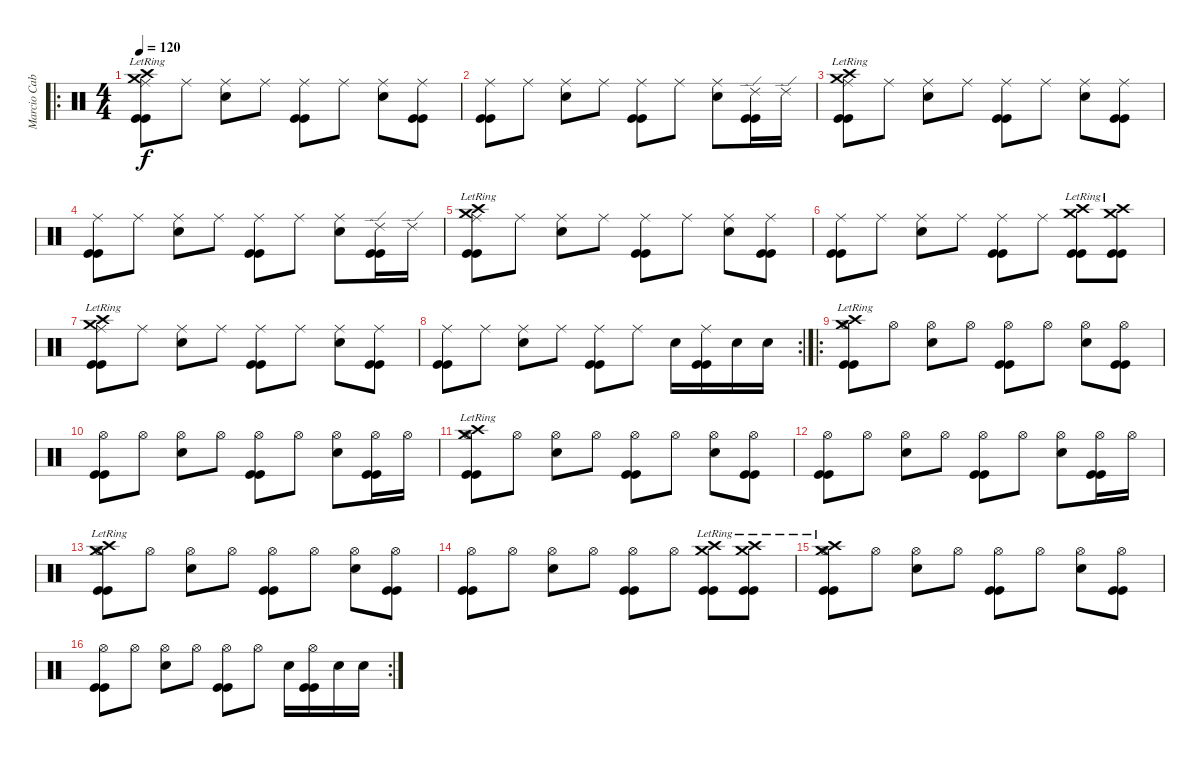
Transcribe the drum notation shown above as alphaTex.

\track ("Marcio Cabrita" "Marcio Cab") {instrument percussion}
\staff {score}
\articulation defaults
\ro
\ts (4 4)
\tempo 120
\clef neutral
\ks c
("Crash high (hit)"{lr} "Crash medium (hit)"{lr} "Ride (middle)" "Kick (hit)" "Kick (hit)").8{dy f} "Ride (middle)".8 ("Snare (hit) 2" "Ride (middle)").8 "Ride (middle)".8 ("Ride (middle)" "Kick (hit)" "Kick (hit)").8 "Ride (middle)".8 ("Snare (hit) 2" "Ride (middle)").8 ("Ride (middle)" "Kick (hit)" "Kick (hit)").8 |
("Ride (middle)" "Kick (hit)" "Kick (hit)").8 "Ride (middle)".8 ("Snare (hit) 2" "Ride (middle)").8 "Ride (middle)".8 ("Ride (middle)" "Kick (hit)" "Kick (hit)").8 "Ride (middle)".8 ("Snare (hit) 2" "Ride (middle)").8 ("Ride (edge) 2" "Kick (hit)" "Kick (hit)").16 "Ride (edge) 2".16 |
("Crash high (hit)"{lr} "Crash medium (hit)"{lr} "Ride (middle)" "Kick (hit)" "Kick (hit)").8 "Ride (middle)".8 ("Snare (hit) 2" "Ride (middle)").8 "Ride (middle)".8 ("Ride (middle)" "Kick (hit)" "Kick (hit)").8 "Ride (middle)".8 ("Snare (hit) 2" "Ride (middle)").8 ("Ride (middle)" "Kick (hit)" "Kick (hit)").8 |
("Ride (middle)" "Kick (hit)" "Kick (hit)").8 "Ride (middle)".8 ("Snare (hit) 2" "Ride (middle)").8 "Ride (middle)".8 ("Ride (middle)" "Kick (hit)" "Kick (hit)").8 "Ride (middle)".8 ("Snare (hit) 2" "Ride (middle)").8 ("Ride (edge) 2" "Kick (hit)" "Kick (hit)").16 "Ride (edge) 2".16 |
("Crash high (hit)"{lr} "Crash medium (hit)"{lr} "Ride (middle)" "Kick (hit)" "Kick (hit)").8 "Ride (middle)".8 ("Snare (hit) 2" "Ride (middle)").8 "Ride (middle)".8 ("Ride (middle)" "Kick (hit)" "Kick (hit)").8 "Ride (middle)".8 ("Snare (hit) 2" "Ride (middle)").8 ("Ride (middle)" "Kick (hit)" "Kick (hit)").8 |
("Ride (middle)" "Kick (hit)" "Kick (hit)").8 "Ride (middle)".8 ("Snare (hit) 2" "Ride (middle)").8 "Ride (middle)".8 ("Ride (middle)" "Kick (hit)" "Kick (hit)").8 "Ride (middle)".8 ("Crash high (hit)"{lr} "Crash medium (hit)"{lr} "Kick (hit)" "Kick (hit)").8 ("Crash high (hit)"{lr} "Crash medium (hit)"{lr} "Kick (hit)" "Kick (hit)").8 |
("Crash high (hit)"{lr} "Crash medium (hit)"{lr} "Ride (middle)" "Kick (hit)" "Kick (hit)").8 "Ride (middle)".8 ("Snare (hit) 2" "Ride (middle)").8 "Ride (middle)".8 ("Ride (middle)" "Kick (hit)" "Kick (hit)").8 "Ride (middle)".8 ("Snare (hit) 2" "Ride (middle)").8 ("Ride (middle)" "Kick (hit)" "Kick (hit)").8 |
\rc 2
("Ride (middle)" "Kick (hit)" "Kick (hit)").8 "Ride (middle)".8 ("Snare (hit) 2" "Ride (middle)").8 "Ride (middle)".8 ("Ride (middle)" "Kick (hit)" "Kick (hit)").8 "Ride (middle)".8 "Snare (hit) 2".16 ("Ride (middle)" "Kick (hit)" "Kick (hit)").16 "Snare (hit) 2".16 "Snare (hit) 2".16 |
\ro
("Crash high (hit)"{lr} "Crash medium (hit)"{lr} "Hi-Hat (open)" "Kick (hit)" "Kick (hit)").8 "Hi-Hat (open)".8 ("Snare (hit) 2" "Hi-Hat (open)").8 "Hi-Hat (open)".8 ("Hi-Hat (open)" "Kick (hit)" "Kick (hit)").8 "Hi-Hat (open)".8 ("Snare (hit) 2" "Hi-Hat (open)").8 ("Hi-Hat (open)" "Kick (hit)" "Kick (hit)").8 |
("Hi-Hat (open)" "Kick (hit)" "Kick (hit)").8 "Hi-Hat (open)".8 ("Snare (hit) 2" "Hi-Hat (open)").8 "Hi-Hat (open)".8 ("Hi-Hat (open)" "Kick (hit)" "Kick (hit)").8 "Hi-Hat (open)".8 ("Snare (hit) 2" "Hi-Hat (open)").8 ("Hi-Hat (open)" "Kick (hit)" "Kick (hit)").16 "Hi-Hat (open)".16 |
("Crash high (hit)"{lr} "Crash medium (hit)"{lr} "Hi-Hat (open)" "Kick (hit)" "Kick (hit)").8 "Hi-Hat (open)".8 ("Snare (hit) 2" "Hi-Hat (open)").8 "Hi-Hat (open)".8 ("Hi-Hat (open)" "Kick (hit)" "Kick (hit)").8 "Hi-Hat (open)".8 ("Snare (hit) 2" "Hi-Hat (open)").8 ("Hi-Hat (open)" "Kick (hit)" "Kick (hit)").8 |
("Hi-Hat (open)" "Kick (hit)" "Kick (hit)").8 "Hi-Hat (open)".8 ("Snare (hit) 2" "Hi-Hat (open)").8 "Hi-Hat (open)".8 ("Hi-Hat (open)" "Kick (hit)" "Kick (hit)").8 "Hi-Hat (open)".8 ("Snare (hit) 2" "Hi-Hat (open)").8 ("Hi-Hat (open)" "Kick (hit)" "Kick (hit)").16 "Hi-Hat (open)".16 |
("Crash high (hit)"{lr} "Crash medium (hit)"{lr} "Hi-Hat (open)" "Kick (hit)" "Kick (hit)").8 "Hi-Hat (open)".8 ("Snare (hit) 2" "Hi-Hat (open)").8 "Hi-Hat (open)".8 ("Hi-Hat (open)" "Kick (hit)" "Kick (hit)").8 "Hi-Hat (open)".8 ("Snare (hit) 2" "Hi-Hat (open)").8 ("Hi-Hat (open)" "Kick (hit)" "Kick (hit)").8 |
("Hi-Hat (open)" "Kick (hit)" "Kick (hit)").8 "Hi-Hat (open)".8 ("Snare (hit) 2" "Hi-Hat (open)").8 "Hi-Hat (open)".8 ("Hi-Hat (open)" "Kick (hit)" "Kick (hit)").8 "Hi-Hat (open)".8 ("Crash high (hit)"{lr} "Crash medium (hit)"{lr} "Kick (hit)" "Kick (hit)").8 ("Crash high (hit)"{lr} "Crash medium (hit)"{lr} "Kick (hit)" "Kick (hit)").8 |
("Crash high (hit)"{lr} "Crash medium (hit)"{lr} "Hi-Hat (open)" "Kick (hit)" "Kick (hit)").8 "Hi-Hat (open)".8 ("Snare (hit) 2" "Hi-Hat (open)").8 "Hi-Hat (open)".8 ("Hi-Hat (open)" "Kick (hit)" "Kick (hit)").8 "Hi-Hat (open)".8 ("Snare (hit) 2" "Hi-Hat (open)").8 ("Hi-Hat (open)" "Kick (hit)" "Kick (hit)").8 |
\rc 2
("Hi-Hat (open)" "Kick (hit)" "Kick (hit)").8 "Hi-Hat (open)".8 ("Snare (hit) 2" "Hi-Hat (open)").8 "Hi-Hat (open)".8 ("Hi-Hat (open)" "Kick (hit)" "Kick (hit)").8 "Hi-Hat (open)".8 "Snare (hit) 2".16 ("Hi-Hat (open)" "Kick (hit)" "Kick (hit)").16 "Snare (hit) 2".16 "Snare (hit) 2".16
